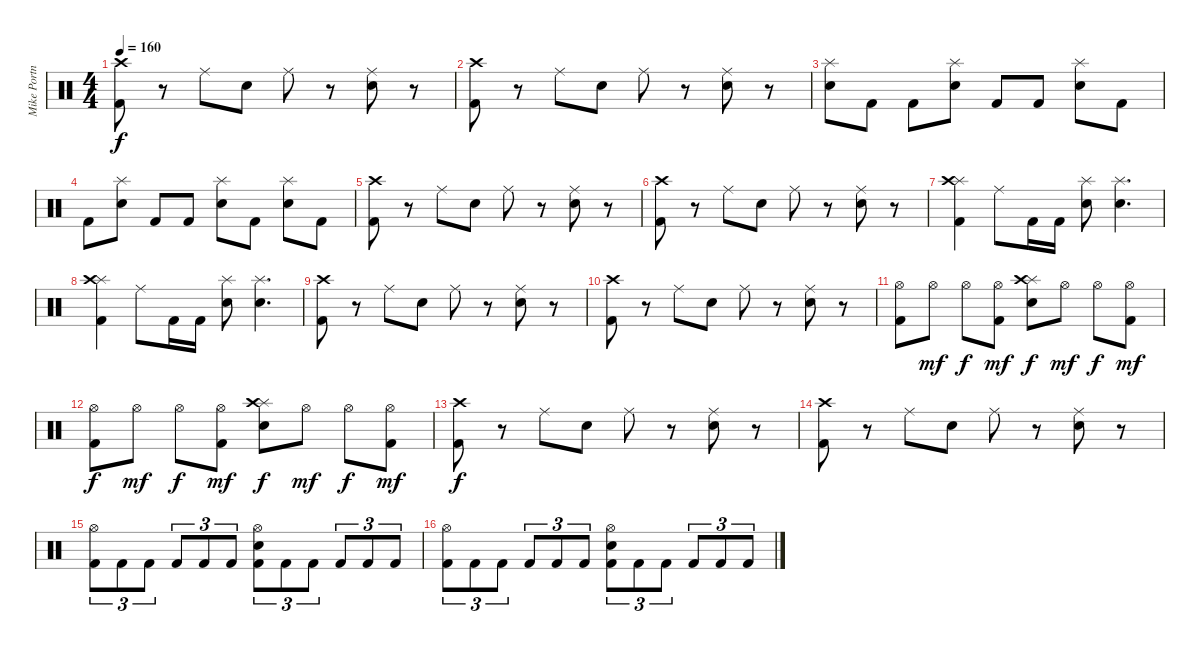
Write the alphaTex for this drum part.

\track ("Mike Portnoy" "Mike Portn") {instrument percussion}
\staff {score}
\articulation defaults
\ts (4 4)
\tempo 160
\clef neutral
\ks c
("Kick (hit) 2" "Crash high (hit)").8{dy f} r.8 "Ride (middle)".8 "Electric Snare (hit)".8 "Ride (middle)".8 r.8 ("Electric Snare (hit)" "Ride (middle)").8 r.8 |
("Kick (hit) 2" "Crash high (hit)").8 r.8 "Ride (middle)".8 "Electric Snare (hit)".8 "Ride (middle)".8 r.8 ("Electric Snare (hit)" "Ride (middle)").8 r.8 |
("Electric Snare (hit)" "Splash (hit)").8 "Kick (hit) 2".8 "Kick (hit) 2".8 ("Electric Snare (hit)" "Splash (hit)").8 "Kick (hit) 2".8 "Kick (hit) 2".8 ("Electric Snare (hit)" "Splash (hit)").8 "Kick (hit) 2".8 |
"Kick (hit) 2".8 ("Electric Snare (hit)" "Splash (hit)").8 "Kick (hit) 2".8 "Kick (hit) 2".8 ("Electric Snare (hit)" "Splash (hit)").8 "Kick (hit) 2".8 ("Electric Snare (hit)" "Splash (hit)").8 "Kick (hit) 2".8 |
("Kick (hit) 2" "Crash high (hit)").8 r.8 "Ride (middle)".8 "Electric Snare (hit)".8 "Ride (middle)".8 r.8 ("Electric Snare (hit)" "Ride (middle)").8 r.8 |
("Kick (hit) 2" "Crash high (hit)").8 r.8 "Ride (middle)".8 "Electric Snare (hit)".8 "Ride (middle)".8 r.8 ("Electric Snare (hit)" "Ride (middle)").8 r.8 |
("Kick (hit) 2" "Splash (hit)" "Crash high (hit)").4 "Ride (middle)".8 "Kick (hit) 2".16 "Kick (hit) 2".16 ("Electric Snare (hit)" "Splash (hit)").8 ("Electric Snare (hit)" "Splash (hit)").4{d} |
("Kick (hit) 2" "Splash (hit)" "Crash high (hit)").4 "Ride (middle)".8 "Kick (hit) 2".16 "Kick (hit) 2".16 ("Electric Snare (hit)" "Splash (hit)").8 ("Electric Snare (hit)" "Splash (hit)").4{d} |
("Kick (hit) 2" "Crash high (hit)").8 r.8 "Ride (middle)".8 "Electric Snare (hit)".8 "Ride (middle)".8 r.8 ("Electric Snare (hit)" "Ride (middle)").8 r.8 |
("Kick (hit) 2" "Crash high (hit)").8 r.8 "Ride (middle)".8 "Electric Snare (hit)".8 "Ride (middle)".8 r.8 ("Electric Snare (hit)" "Ride (middle)").8 r.8 |
("Kick (hit) 2" "Hi-Hat (open)").8 "Hi-Hat (open)".8{dy mf} "Hi-Hat (open)".8{dy f} ("Kick (hit) 2" "Hi-Hat (open)").8{dy mf} ("Electric Snare (hit)" "Splash (hit)" "Crash high (hit)").8{dy f} "Hi-Hat (open)".8{dy mf} "Hi-Hat (open)".8{dy f} ("Kick (hit) 2" "Hi-Hat (open)").8{dy mf} |
("Kick (hit) 2" "Hi-Hat (open)").8{dy f} "Hi-Hat (open)".8{dy mf} "Hi-Hat (open)".8{dy f} ("Kick (hit) 2" "Hi-Hat (open)").8{dy mf} ("Electric Snare (hit)" "Splash (hit)" "Crash high (hit)").8{dy f} "Hi-Hat (open)".8{dy mf} "Hi-Hat (open)".8{dy f} ("Kick (hit) 2" "Hi-Hat (open)").8{dy mf} |
("Kick (hit) 2" "Crash high (hit)").8{dy f} r.8 "Ride (middle)".8 "Electric Snare (hit)".8 "Ride (middle)".8 r.8 ("Electric Snare (hit)" "Ride (middle)").8 r.8 |
("Kick (hit) 2" "Crash high (hit)").8 r.8 "Ride (middle)".8 "Electric Snare (hit)".8 "Ride (middle)".8 r.8 ("Electric Snare (hit)" "Ride (middle)").8 r.8 |
("Kick (hit) 2" "Hi-Hat (open)").8{tu (3 2)} "Kick (hit) 2".8{tu (3 2)} "Kick (hit) 2".8{tu (3 2)} "Kick (hit) 2".8{tu (3 2)} "Kick (hit) 2".8{tu (3 2)} "Kick (hit) 2".8{tu (3 2)} ("Kick (hit) 2" "Electric Snare (hit)" "Hi-Hat (open)").8{tu (3 2)} "Kick (hit) 2".8{tu (3 2)} "Kick (hit) 2".8{tu (3 2)} "Kick (hit) 2".8{tu (3 2)} "Kick (hit) 2".8{tu (3 2)} "Kick (hit) 2".8{tu (3 2)} |
("Kick (hit) 2" "Hi-Hat (open)").8{tu (3 2)} "Kick (hit) 2".8{tu (3 2)} "Kick (hit) 2".8{tu (3 2)} "Kick (hit) 2".8{tu (3 2)} "Kick (hit) 2".8{tu (3 2)} "Kick (hit) 2".8{tu (3 2)} ("Kick (hit) 2" "Electric Snare (hit)" "Hi-Hat (open)").8{tu (3 2)} "Kick (hit) 2".8{tu (3 2)} "Kick (hit) 2".8{tu (3 2)} "Kick (hit) 2".8{tu (3 2)} "Kick (hit) 2".8{tu (3 2)} "Kick (hit) 2".8{tu (3 2)}
